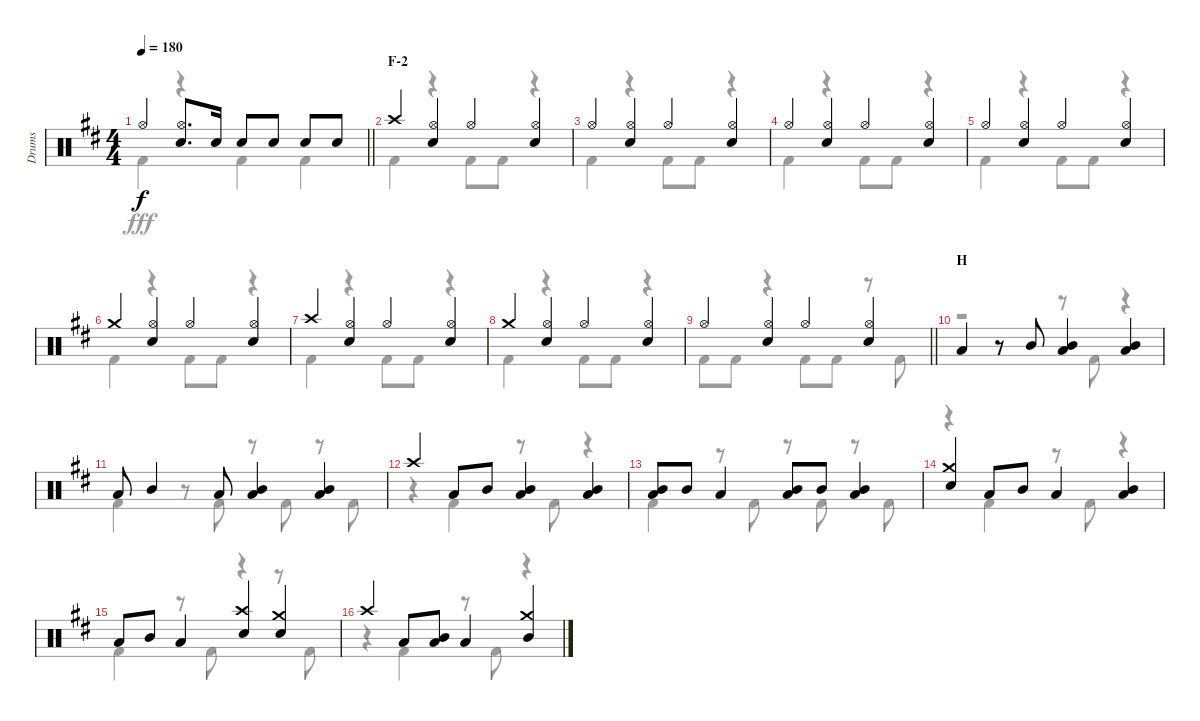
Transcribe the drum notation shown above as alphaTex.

\track ("Drums" "Drums") {instrument percussion}
\staff {score}
\articulation defaults
\voice
\ts (4 4)
\tempo 180
\clef neutral
\barLineRight lightlight
\ks d "Hi-Hat (open)".4{dy f}
("Hi-Hat (open)" "Snare (hit) 2").8{d} "Snare (hit) 2".16 "Snare (hit) 2".8 "Snare (hit) 2".8 "Snare (hit) 2".8 "Snare (hit) 2".8 |
\section ("" "F-2")
"Crash high (hit)".4 ("Hi-Hat (open)" "Snare (hit) 2").4 "Hi-Hat (open)".4 ("Hi-Hat (open)" "Snare (hit) 2").4 |
"Hi-Hat (open)".4 ("Hi-Hat (open)" "Snare (hit) 2").4 "Hi-Hat (open)".4 ("Hi-Hat (open)" "Snare (hit) 2").4 |
"Hi-Hat (open)".4 ("Hi-Hat (open)" "Snare (hit) 2").4 "Hi-Hat (open)".4 ("Hi-Hat (open)" "Snare (hit) 2").4 |
"Hi-Hat (open)".4 ("Hi-Hat (open)" "Snare (hit) 2").4 "Hi-Hat (open)".4 ("Hi-Hat (open)" "Snare (hit) 2").4 |
"Crash medium (hit)".4 ("Hi-Hat (open)" "Snare (hit) 2").4 "Hi-Hat (open)".4 ("Hi-Hat (open)" "Snare (hit) 2").4 |
"Crash high (hit)".4 ("Hi-Hat (open)" "Snare (hit) 2").4 "Hi-Hat (open)".4 ("Hi-Hat (open)" "Snare (hit) 2").4 |
"Crash medium (hit)".4 ("Hi-Hat (open)" "Snare (hit) 2").4 "Hi-Hat (open)".4 ("Hi-Hat (open)" "Snare (hit) 2").4 |
\barLineRight lightlight "Hi-Hat (open)".4
("Hi-Hat (open)" "Snare (hit) 2").4 "Hi-Hat (open)".4 ("Hi-Hat (open)" "Snare (hit) 2").4 |
\section ("" "H")
"Low Tom (hit)".4 r.8 "Mid Tom (hit)".8 ("Mid Tom (hit)" "Low Tom (hit)").4 ("Mid Tom (hit)" "Low Tom (hit)").4 |
"Low Tom (hit)".8 "Mid Tom (hit)".4 "Low Tom (hit)".8 ("Mid Tom (hit)" "Low Tom (hit)").4 ("Mid Tom (hit)" "Low Tom (hit)").4 |
"Crash high (hit)".4 "Low Tom (hit)".8 "Mid Tom (hit)".8 ("Mid Tom (hit)" "Low Tom (hit)").4 ("Mid Tom (hit)" "Low Tom (hit)").4 |
("Mid Tom (hit)" "Low Tom (hit)").8 "Mid Tom (hit)".8 "Low Tom (hit)".4 ("Mid Tom (hit)" "Low Tom (hit)").8 "Mid Tom (hit)".8 ("Mid Tom (hit)" "Low Tom (hit)").4 |
("Crash medium (hit)" "Snare (hit) 2").4 "Low Tom (hit)".8 "Mid Tom (hit)".8 "Low Tom (hit)".4 ("Mid Tom (hit)" "Low Tom (hit)").4 |
"Low Tom (hit)".8 "Mid Tom (hit)".8 "Low Tom (hit)".4 ("Crash high (hit)" "Snare (hit) 2").4 ("Crash medium (hit)" "Snare (hit) 2").4 |
"Crash high (hit)".4 "Low Tom (hit)".8 ("Mid Tom (hit)" "Low Tom (hit)").8 "Low Tom (hit)".4 ("Crash medium (hit)" "Mid Tom (hit)").4
\voice
\clef neutral
\ottava regular
\simile none
\barLineRight lightlight
\ks d "Kick (hit) 2".4{dy fff}
r.4 "Kick (hit) 2".4 "Kick (hit) 2".4 |
"Kick (hit) 2".4 r.4 "Kick (hit) 2".8 "Kick (hit) 2".8 r.4 |
"Kick (hit) 2".4 r.4 "Kick (hit) 2".8 "Kick (hit) 2".8 r.4 |
"Kick (hit) 2".4 r.4 "Kick (hit) 2".8 "Kick (hit) 2".8 r.4 |
"Kick (hit) 2".4 r.4 "Kick (hit) 2".8 "Kick (hit) 2".8 r.4 |
"Kick (hit) 2".4 r.4 "Kick (hit) 2".8 "Kick (hit) 2".8 r.4 |
"Kick (hit) 2".4 r.4 "Kick (hit) 2".8 "Kick (hit) 2".8 r.4 |
"Kick (hit) 2".4 r.4 "Kick (hit) 2".8 "Kick (hit) 2".8 r.4 |
\barLineRight lightlight "Kick (hit) 2".8 "Kick (hit) 2".8
r.4 "Kick (hit) 2".8 "Kick (hit) 2".8 r.8 "Kick (hit) 2".8 |
r.2 r.8 "Kick (hit) 2".8 r.4 |
"Kick (hit) 2".4 r.8 "Kick (hit) 2".8 r.8 "Kick (hit) 2".8 r.8 "Kick (hit) 2".8 |
r.4 "Kick (hit) 2".4 r.8 "Kick (hit) 2".8 r.4 |
"Kick (hit) 2".4 r.8 "Kick (hit) 2".8 r.8 "Kick (hit) 2".8 r.8 "Kick (hit) 2".8 |
r.4 "Kick (hit) 2".4 r.8 "Kick (hit) 2".8 r.4 |
"Kick (hit) 2".4 r.8 "Kick (hit) 2".8 r.4 r.8 "Kick (hit) 2".8 |
r.4 "Kick (hit) 2".4 r.8 "Kick (hit) 2".8 r.4
